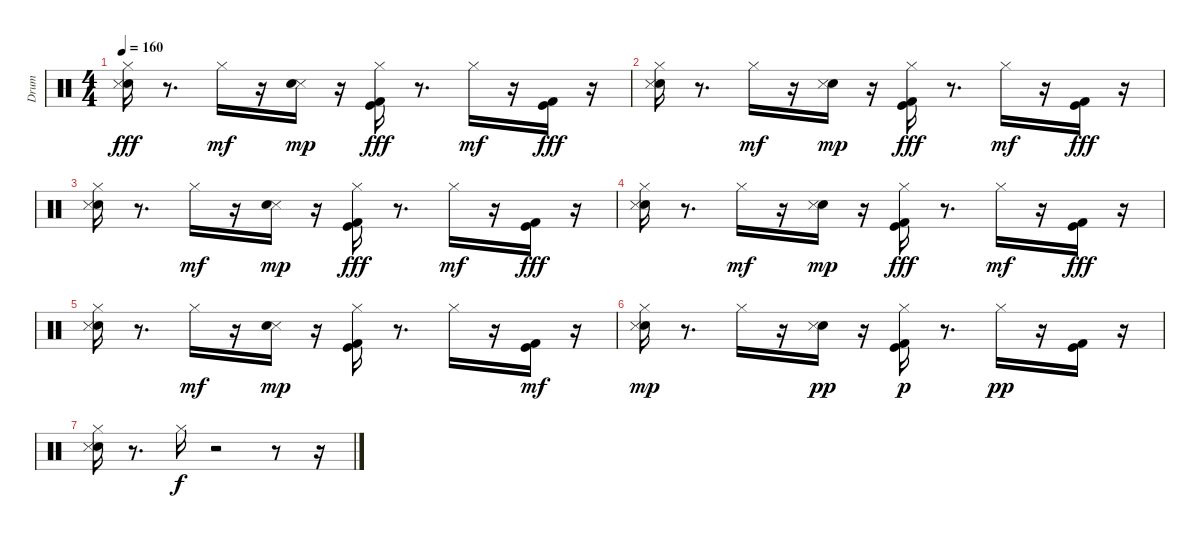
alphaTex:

\track ("Drum" "Drum") {instrument percussion}
\staff {score}
\articulation defaults
\ts (4 4)
\tempo 160
\clef neutral
\ks c
("Hi-Hat (closed)" "Hand Clap (hit)" "Snare (side stick) 3").16{dy fff} r.8{d} "Hi-Hat (closed)".16{dy mf} r.16 ("Snare (side stick) 3" "Hand Clap (hit)").16{dy mp} r.16 ("Hi-Hat (closed)" "Kick (hit)" "Kick (hit) 2").16{dy fff} r.8{d} "Hi-Hat (closed)".16{dy mf} r.16 ("Kick (hit)" "Kick (hit) 2").16{dy fff} r.16 |
("Hi-Hat (closed)" "Hand Clap (hit)" "Snare (side stick) 3").16 r.8{d} "Hi-Hat (closed)".16{dy mf} r.16 ("Hand Clap (hit)" "Snare (side stick) 3").16{dy mp} r.16 ("Hi-Hat (closed)" "Kick (hit)" "Kick (hit) 2").16{dy fff} r.8{d} "Hi-Hat (closed)".16{dy mf} r.16 ("Kick (hit)" "Kick (hit) 2").16{dy fff} r.16 |
("Hi-Hat (closed)" "Hand Clap (hit)" "Snare (side stick) 3").16 r.8{d} "Hi-Hat (closed)".16{dy mf} r.16 ("Snare (side stick) 3" "Hand Clap (hit)").16{dy mp} r.16 ("Hi-Hat (closed)" "Kick (hit)" "Kick (hit) 2").16{dy fff} r.8{d} "Hi-Hat (closed)".16{dy mf} r.16 ("Kick (hit)" "Kick (hit) 2").16{dy fff} r.16 |
("Hi-Hat (closed)" "Hand Clap (hit)" "Snare (side stick) 3").16 r.8{d} "Hi-Hat (closed)".16{dy mf} r.16 ("Hand Clap (hit)" "Snare (side stick) 3").16{dy mp} r.16 ("Hi-Hat (closed)" "Kick (hit)" "Kick (hit) 2").16{dy fff} r.8{d} "Hi-Hat (closed)".16{dy mf} r.16 ("Kick (hit)" "Kick (hit) 2").16{dy fff} r.16 |
("Hi-Hat (closed)" "Hand Clap (hit)" "Snare (side stick) 3").16 r.8{d} "Hi-Hat (closed)".16{dy mf} r.16 ("Snare (side stick) 3" "Hand Clap (hit)").16{dy mp} r.16 ("Hi-Hat (closed)" "Kick (hit)" "Kick (hit) 2").16 r.8{d} "Hi-Hat (closed)".16 r.16 ("Kick (hit)" "Kick (hit) 2").16{dy mf} r.16 |
("Hi-Hat (closed)" "Hand Clap (hit)" "Snare (side stick) 3").16{dy mp} r.8{d} "Hi-Hat (closed)".16 r.16 ("Hand Clap (hit)" "Snare (side stick) 3").16{dy pp} r.16 ("Hi-Hat (closed)" "Kick (hit)" "Kick (hit) 2").16{dy p} r.8{d} "Hi-Hat (closed)".16{dy pp} r.16 ("Kick (hit)" "Kick (hit) 2").16 r.16 |
("Hi-Hat (closed)" "Hand Clap (hit)" "Snare (side stick) 3").16 r.8{d} "Hi-Hat (closed)".16{dy f} r.2 r.8 r.16
